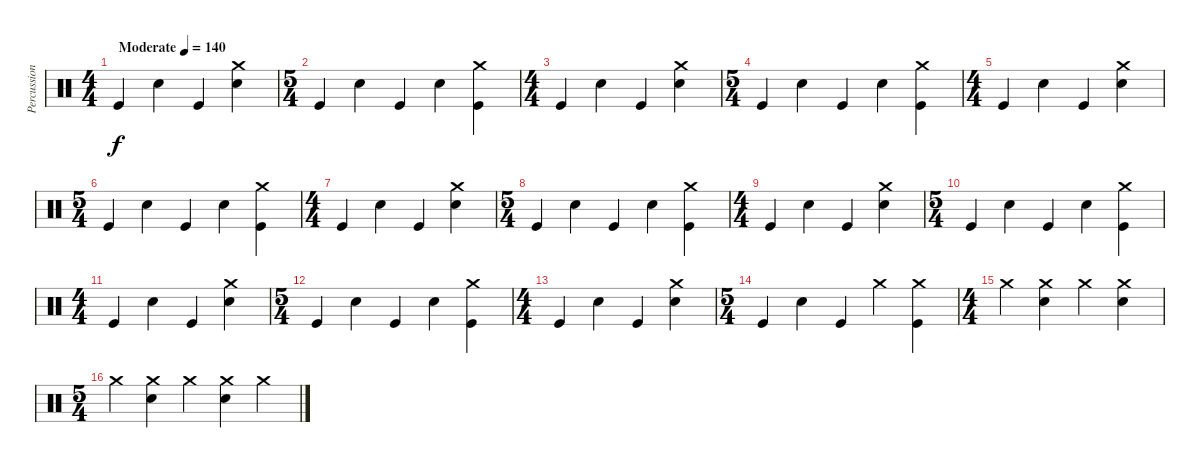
\track ("Percussion" "Percussion") {instrument percussion}
\staff {score}
\articulation defaults
\ts (4 4)
\tempo (140 "Moderate")
\clef neutral
\ks c "Kick (hit)".4{dy f} "Snare (hit) 2".4 "Kick (hit)".4
("Crash medium (hit)" "Snare (hit) 2").4 |
\ts (5 4)
"Kick (hit)".4 "Snare (hit) 2".4 "Kick (hit)".4 "Snare (hit) 2".4 ("Crash medium (hit)" "Kick (hit)").4 |
\ts (4 4)
"Kick (hit)".4 "Snare (hit) 2".4 "Kick (hit)".4 ("Crash medium (hit)" "Snare (hit) 2").4 |
\ts (5 4)
"Kick (hit)".4 "Snare (hit) 2".4 "Kick (hit)".4 "Snare (hit) 2".4 ("Crash medium (hit)" "Kick (hit)").4 |
\ts (4 4)
"Kick (hit)".4 "Snare (hit) 2".4 "Kick (hit)".4 ("Crash medium (hit)" "Snare (hit) 2").4 |
\ts (5 4)
"Kick (hit)".4 "Snare (hit) 2".4 "Kick (hit)".4 "Snare (hit) 2".4 ("Crash medium (hit)" "Kick (hit)").4 |
\ts (4 4)
"Kick (hit)".4 "Snare (hit) 2".4 "Kick (hit)".4 ("Crash medium (hit)" "Snare (hit) 2").4 |
\ts (5 4)
"Kick (hit)".4 "Snare (hit) 2".4 "Kick (hit)".4 "Snare (hit) 2".4 ("Crash medium (hit)" "Kick (hit)").4 |
\ts (4 4)
"Kick (hit)".4 "Snare (hit) 2".4 "Kick (hit)".4 ("Crash medium (hit)" "Snare (hit) 2").4 |
\ts (5 4)
"Kick (hit)".4 "Snare (hit) 2".4 "Kick (hit)".4 "Snare (hit) 2".4 ("Crash medium (hit)" "Kick (hit)").4 |
\ts (4 4)
"Kick (hit)".4 "Snare (hit) 2".4 "Kick (hit)".4 ("Crash medium (hit)" "Snare (hit) 2").4 |
\ts (5 4)
"Kick (hit)".4 "Snare (hit) 2".4 "Kick (hit)".4 "Snare (hit) 2".4 ("Crash medium (hit)" "Kick (hit)").4 |
\ts (4 4)
"Kick (hit)".4 "Snare (hit) 2".4 "Kick (hit)".4 ("Crash medium (hit)" "Snare (hit) 2").4 |
\ts (5 4)
"Kick (hit)".4 "Snare (hit) 2".4 "Kick (hit)".4 "Crash medium (hit)".4 ("Crash medium (hit)" "Kick (hit)").4 |
\ts (4 4)
"Crash medium (hit)".4 ("Snare (hit) 2" "Crash medium (hit)").4 "Crash medium (hit)".4 ("Snare (hit) 2" "Crash medium (hit)").4 |
\ts (5 4)
"Crash medium (hit)".4 ("Snare (hit) 2" "Crash medium (hit)").4 "Crash medium (hit)".4 ("Snare (hit) 2" "Crash medium (hit)").4 "Crash medium (hit)".4
